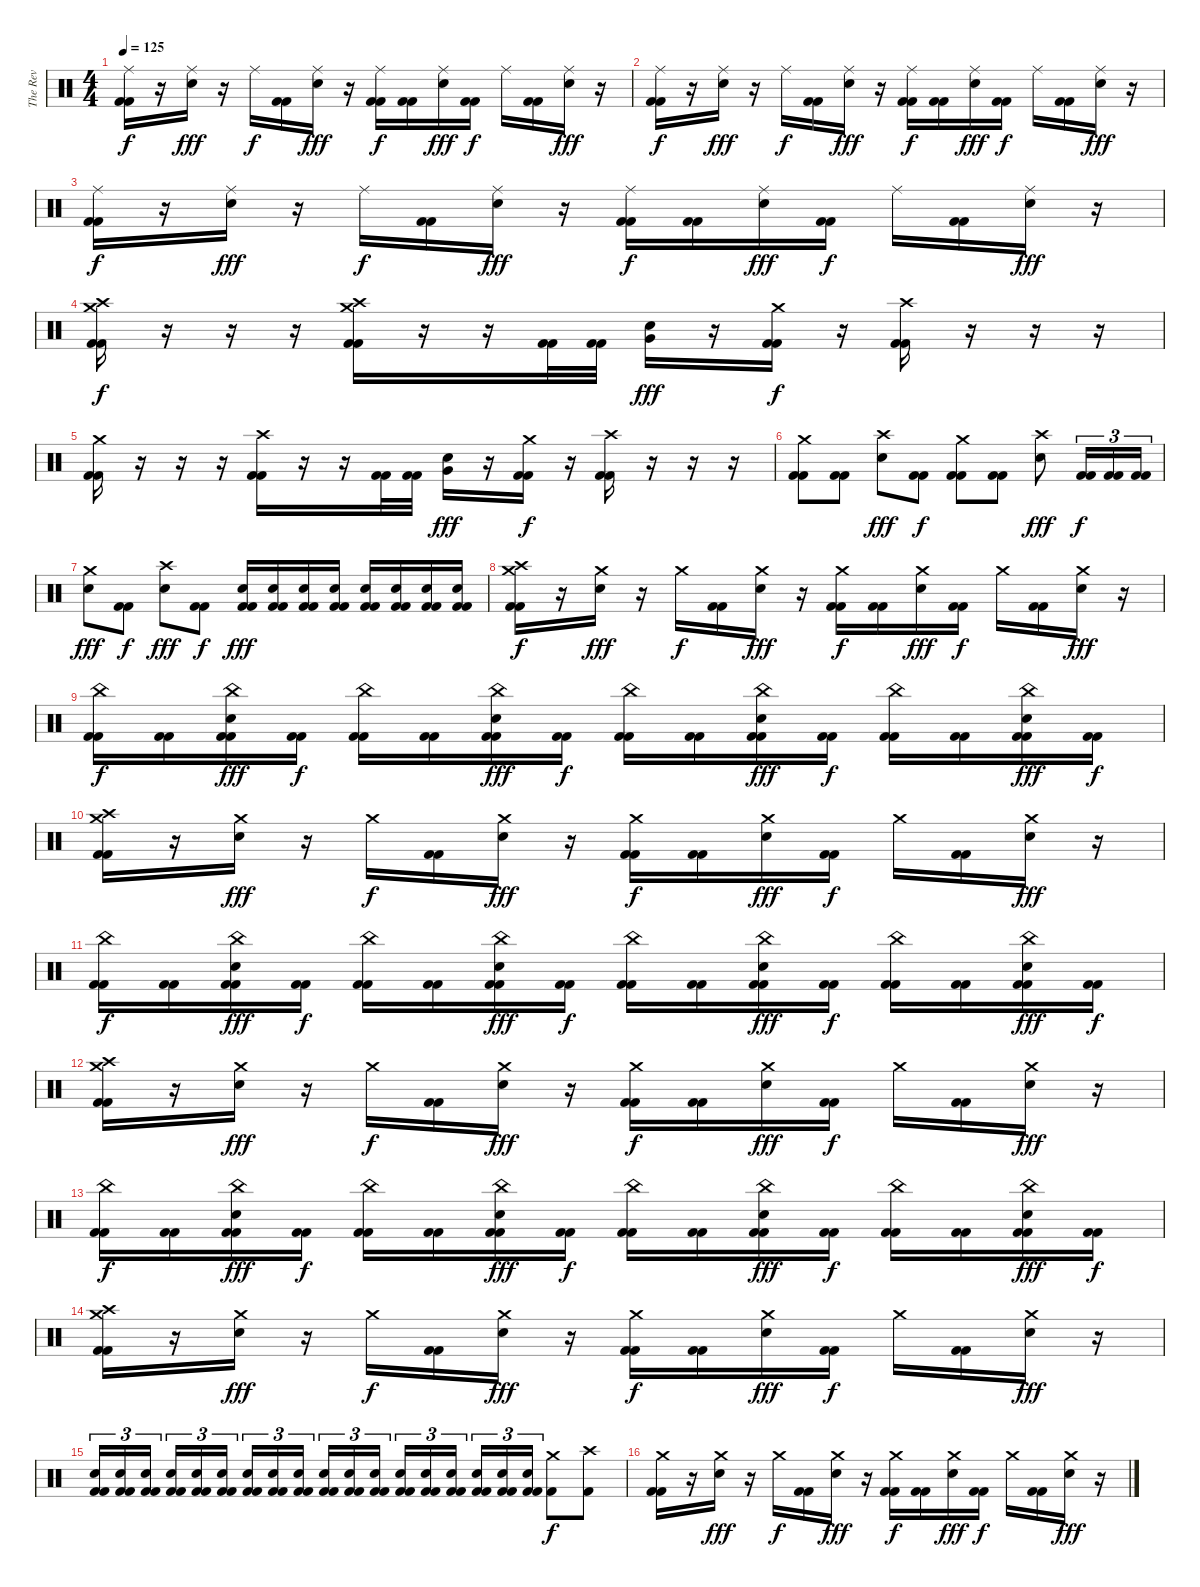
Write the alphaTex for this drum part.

\track ("The Rev" "The Rev") {mute instrument percussion}
\staff {score}
\articulation defaults
\ts (4 4)
\tempo 125
\clef neutral
\ks c
("Ride (middle)" "Kick (hit) 2" "Kick (hit) 2").16{dy f} r.16 ("Ride (middle)" "Electric Snare (hit)").16{dy fff} r.16 "Ride (middle)".16{dy f} ("Kick (hit) 2" "Kick (hit) 2").16 ("Ride (middle)" "Electric Snare (hit)").16{dy fff} r.16 ("Ride (middle)" "Kick (hit) 2" "Kick (hit) 2").16{dy f} ("Kick (hit) 2" "Kick (hit) 2").16 ("Ride (middle)" "Electric Snare (hit)").16{dy fff} ("Kick (hit) 2" "Kick (hit) 2").16{dy f} "Ride (middle)".16 ("Kick (hit) 2" "Kick (hit) 2").16 ("Ride (middle)" "Electric Snare (hit)").16{dy fff} r.16 |
("Ride (middle)" "Kick (hit) 2" "Kick (hit) 2").16{dy f} r.16 ("Ride (middle)" "Electric Snare (hit)").16{dy fff} r.16 "Ride (middle)".16{dy f} ("Kick (hit) 2" "Kick (hit) 2").16 ("Ride (middle)" "Electric Snare (hit)").16{dy fff} r.16 ("Ride (middle)" "Kick (hit) 2" "Kick (hit) 2").16{dy f} ("Kick (hit) 2" "Kick (hit) 2").16 ("Ride (middle)" "Electric Snare (hit)").16{dy fff} ("Kick (hit) 2" "Kick (hit) 2").16{dy f} "Ride (middle)".16 ("Kick (hit) 2" "Kick (hit) 2").16 ("Ride (middle)" "Electric Snare (hit)").16{dy fff} r.16 |
("Ride (middle)" "Kick (hit) 2" "Kick (hit) 2").16{dy f} r.16 ("Ride (middle)" "Electric Snare (hit)").16{dy fff} r.16 "Ride (middle)".16{dy f} ("Kick (hit) 2" "Kick (hit) 2").16 ("Ride (middle)" "Electric Snare (hit)").16{dy fff} r.16 ("Ride (middle)" "Kick (hit) 2" "Kick (hit) 2").16{dy f} ("Kick (hit) 2" "Kick (hit) 2").16 ("Ride (middle)" "Electric Snare (hit)").16{dy fff} ("Kick (hit) 2" "Kick (hit) 2").16{dy f} "Ride (middle)".16 ("Kick (hit) 2" "Kick (hit) 2").16 ("Ride (middle)" "Electric Snare (hit)").16{dy fff} r.16 |
("Crash high (hit)" "Crash medium (hit)" "Kick (hit) 2" "Kick (hit) 2").16{dy f} r.16 r.16 r.16 ("Crash high (hit)" "Crash medium (hit)" "Kick (hit) 2" "Kick (hit) 2").16 r.16 r.16 ("Kick (hit) 2" "Kick (hit) 2").32 ("Kick (hit) 2" "Kick (hit) 2").32 ("Electric Snare (hit)" "Very Low Tom (hit)").16{dy fff} r.16 ("Crash medium (hit)" "Kick (hit) 2" "Kick (hit) 2").16{dy f} r.16 ("Crash high (hit)" "Kick (hit) 2" "Kick (hit) 2").16 r.16 r.16 r.16 |
("Crash medium (hit)" "Kick (hit) 2" "Kick (hit) 2").16 r.16 r.16 r.16 ("Crash high (hit)" "Kick (hit) 2" "Kick (hit) 2").16 r.16 r.16 ("Kick (hit) 2" "Kick (hit) 2").32 ("Kick (hit) 2" "Kick (hit) 2").32 ("Electric Snare (hit)" "Very Low Tom (hit)").16{dy fff} r.16 ("Crash medium (hit)" "Kick (hit) 2" "Kick (hit) 2").16{dy f} r.16 ("Crash high (hit)" "Kick (hit) 2" "Kick (hit) 2").16 r.16 r.16 r.16 |
("Crash medium (hit)" "Kick (hit) 2" "Kick (hit) 2").8 ("Kick (hit) 2" "Kick (hit) 2").8 ("Crash high (hit)" "Electric Snare (hit)").8{dy fff} ("Kick (hit) 2" "Kick (hit) 2").8{dy f} ("Crash medium (hit)" "Kick (hit) 2" "Kick (hit) 2").8 ("Kick (hit) 2" "Kick (hit) 2").8 ("Crash high (hit)" "Electric Snare (hit)").8{dy fff} ("Kick (hit) 2" "Kick (hit) 2").16{tu (3 2) dy f} ("Kick (hit) 2" "Kick (hit) 2").16{tu (3 2)} ("Kick (hit) 2" "Kick (hit) 2").16{tu (3 2)} |
("Crash medium (hit)" "Electric Snare (hit)").8{dy fff} ("Kick (hit) 2" "Kick (hit) 2").8{dy f} ("Crash high (hit)" "Electric Snare (hit)").8{dy fff} ("Kick (hit) 2" "Kick (hit) 2").8{dy f} ("Electric Snare (hit)" "Kick (hit) 2" "Kick (hit) 2").16{dy fff} ("Electric Snare (hit)" "Kick (hit) 2" "Kick (hit) 2").16 ("Electric Snare (hit)" "Kick (hit) 2" "Kick (hit) 2").16 ("Electric Snare (hit)" "Kick (hit) 2" "Kick (hit) 2").16 ("Electric Snare (hit)" "Kick (hit) 2" "Kick (hit) 2").16 ("Electric Snare (hit)" "Kick (hit) 2" "Kick (hit) 2").16 ("Electric Snare (hit)" "Kick (hit) 2" "Kick (hit) 2").16 ("Electric Snare (hit)" "Kick (hit) 2" "Kick (hit) 2").16 |
("Crash high (hit)" "Crash medium (hit)" "Kick (hit) 2" "Kick (hit) 2").16{dy f} r.16 ("Crash medium (hit)" "Electric Snare (hit)").16{dy fff} r.16 "Crash medium (hit)".16{dy f} ("Kick (hit) 2" "Kick (hit) 2").16 ("Crash medium (hit)" "Electric Snare (hit)").16{dy fff} r.16 ("Crash medium (hit)" "Kick (hit) 2" "Kick (hit) 2").16{dy f} ("Kick (hit) 2" "Kick (hit) 2").16 ("Crash medium (hit)" "Electric Snare (hit)").16{dy fff} ("Kick (hit) 2" "Kick (hit) 2").16{dy f} "Crash medium (hit)".16 ("Kick (hit) 2" "Kick (hit) 2").16 ("Crash medium (hit)" "Electric Snare (hit)").16{dy fff} r.16 |
("China (hit)" "Kick (hit) 2" "Kick (hit) 2").16{dy f} ("Kick (hit) 2" "Kick (hit) 2").16 ("China (hit)" "Electric Snare (hit)" "Kick (hit) 2" "Kick (hit) 2").16{dy fff} ("Kick (hit) 2" "Kick (hit) 2").16{dy f} ("China (hit)" "Kick (hit) 2" "Kick (hit) 2").16 ("Kick (hit) 2" "Kick (hit) 2").16 ("China (hit)" "Electric Snare (hit)" "Kick (hit) 2" "Kick (hit) 2").16{dy fff} ("Kick (hit) 2" "Kick (hit) 2").16{dy f} ("China (hit)" "Kick (hit) 2" "Kick (hit) 2").16 ("Kick (hit) 2" "Kick (hit) 2").16 ("China (hit)" "Electric Snare (hit)" "Kick (hit) 2" "Kick (hit) 2").16{dy fff} ("Kick (hit) 2" "Kick (hit) 2").16{dy f} ("China (hit)" "Kick (hit) 2" "Kick (hit) 2").16 ("Kick (hit) 2" "Kick (hit) 2").16 ("China (hit)" "Electric Snare (hit)" "Kick (hit) 2" "Kick (hit) 2").16{dy fff} ("Kick (hit) 2" "Kick (hit) 2").16{dy f} |
("Crash high (hit)" "Crash medium (hit)" "Kick (hit) 2" "Kick (hit) 2").16 r.16 ("Crash medium (hit)" "Electric Snare (hit)").16{dy fff} r.16 "Crash medium (hit)".16{dy f} ("Kick (hit) 2" "Kick (hit) 2").16 ("Crash medium (hit)" "Electric Snare (hit)").16{dy fff} r.16 ("Crash medium (hit)" "Kick (hit) 2" "Kick (hit) 2").16{dy f} ("Kick (hit) 2" "Kick (hit) 2").16 ("Crash medium (hit)" "Electric Snare (hit)").16{dy fff} ("Kick (hit) 2" "Kick (hit) 2").16{dy f} "Crash medium (hit)".16 ("Kick (hit) 2" "Kick (hit) 2").16 ("Crash medium (hit)" "Electric Snare (hit)").16{dy fff} r.16 |
("China (hit)" "Kick (hit) 2" "Kick (hit) 2").16{dy f} ("Kick (hit) 2" "Kick (hit) 2").16 ("China (hit)" "Electric Snare (hit)" "Kick (hit) 2" "Kick (hit) 2").16{dy fff} ("Kick (hit) 2" "Kick (hit) 2").16{dy f} ("China (hit)" "Kick (hit) 2" "Kick (hit) 2").16 ("Kick (hit) 2" "Kick (hit) 2").16 ("China (hit)" "Electric Snare (hit)" "Kick (hit) 2" "Kick (hit) 2").16{dy fff} ("Kick (hit) 2" "Kick (hit) 2").16{dy f} ("China (hit)" "Kick (hit) 2" "Kick (hit) 2").16 ("Kick (hit) 2" "Kick (hit) 2").16 ("China (hit)" "Electric Snare (hit)" "Kick (hit) 2" "Kick (hit) 2").16{dy fff} ("Kick (hit) 2" "Kick (hit) 2").16{dy f} ("China (hit)" "Kick (hit) 2" "Kick (hit) 2").16 ("Kick (hit) 2" "Kick (hit) 2").16 ("China (hit)" "Electric Snare (hit)" "Kick (hit) 2" "Kick (hit) 2").16{dy fff} ("Kick (hit) 2" "Kick (hit) 2").16{dy f} |
("Crash high (hit)" "Crash medium (hit)" "Kick (hit) 2" "Kick (hit) 2").16 r.16 ("Crash medium (hit)" "Electric Snare (hit)").16{dy fff} r.16 "Crash medium (hit)".16{dy f} ("Kick (hit) 2" "Kick (hit) 2").16 ("Crash medium (hit)" "Electric Snare (hit)").16{dy fff} r.16 ("Crash medium (hit)" "Kick (hit) 2" "Kick (hit) 2").16{dy f} ("Kick (hit) 2" "Kick (hit) 2").16 ("Crash medium (hit)" "Electric Snare (hit)").16{dy fff} ("Kick (hit) 2" "Kick (hit) 2").16{dy f} "Crash medium (hit)".16 ("Kick (hit) 2" "Kick (hit) 2").16 ("Crash medium (hit)" "Electric Snare (hit)").16{dy fff} r.16 |
("China (hit)" "Kick (hit) 2" "Kick (hit) 2").16{dy f} ("Kick (hit) 2" "Kick (hit) 2").16 ("China (hit)" "Electric Snare (hit)" "Kick (hit) 2" "Kick (hit) 2").16{dy fff} ("Kick (hit) 2" "Kick (hit) 2").16{dy f} ("China (hit)" "Kick (hit) 2" "Kick (hit) 2").16 ("Kick (hit) 2" "Kick (hit) 2").16 ("China (hit)" "Electric Snare (hit)" "Kick (hit) 2" "Kick (hit) 2").16{dy fff} ("Kick (hit) 2" "Kick (hit) 2").16{dy f} ("China (hit)" "Kick (hit) 2" "Kick (hit) 2").16 ("Kick (hit) 2" "Kick (hit) 2").16 ("China (hit)" "Electric Snare (hit)" "Kick (hit) 2" "Kick (hit) 2").16{dy fff} ("Kick (hit) 2" "Kick (hit) 2").16{dy f} ("China (hit)" "Kick (hit) 2" "Kick (hit) 2").16 ("Kick (hit) 2" "Kick (hit) 2").16 ("China (hit)" "Electric Snare (hit)" "Kick (hit) 2" "Kick (hit) 2").16{dy fff} ("Kick (hit) 2" "Kick (hit) 2").16{dy f} |
("Crash high (hit)" "Crash medium (hit)" "Kick (hit) 2" "Kick (hit) 2").16 r.16 ("Crash medium (hit)" "Electric Snare (hit)").16{dy fff} r.16 "Crash medium (hit)".16{dy f} ("Kick (hit) 2" "Kick (hit) 2").16 ("Crash medium (hit)" "Electric Snare (hit)").16{dy fff} r.16 ("Crash medium (hit)" "Kick (hit) 2" "Kick (hit) 2").16{dy f} ("Kick (hit) 2" "Kick (hit) 2").16 ("Crash medium (hit)" "Electric Snare (hit)").16{dy fff} ("Kick (hit) 2" "Kick (hit) 2").16{dy f} "Crash medium (hit)".16 ("Kick (hit) 2" "Kick (hit) 2").16 ("Crash medium (hit)" "Electric Snare (hit)").16{dy fff} r.16 |
("Electric Snare (hit)" "Kick (hit) 2" "Kick (hit) 2").16{tu (3 2)} ("Electric Snare (hit)" "Kick (hit) 2" "Kick (hit) 2").16{tu (3 2)} ("Electric Snare (hit)" "Kick (hit) 2" "Kick (hit) 2").16{tu (3 2) beam splitsecondary} ("Electric Snare (hit)" "Kick (hit) 2" "Kick (hit) 2").16{tu (3 2)} ("Electric Snare (hit)" "Kick (hit) 2" "Kick (hit) 2").16{tu (3 2)} ("Electric Snare (hit)" "Kick (hit) 2" "Kick (hit) 2").16{tu (3 2)} ("Electric Snare (hit)" "Kick (hit) 2" "Kick (hit) 2").16{tu (3 2)} ("Electric Snare (hit)" "Kick (hit) 2" "Kick (hit) 2").16{tu (3 2)} ("Electric Snare (hit)" "Kick (hit) 2" "Kick (hit) 2").16{tu (3 2) beam splitsecondary} ("Electric Snare (hit)" "Kick (hit) 2" "Kick (hit) 2").16{tu (3 2)} ("Electric Snare (hit)" "Kick (hit) 2" "Kick (hit) 2").16{tu (3 2)} ("Electric Snare (hit)" "Kick (hit) 2" "Kick (hit) 2").16{tu (3 2)} ("Electric Snare (hit)" "Kick (hit) 2" "Kick (hit) 2").16{tu (3 2)} ("Electric Snare (hit)" "Kick (hit) 2" "Kick (hit) 2").16{tu (3 2)} ("Electric Snare (hit)" "Kick (hit) 2" "Kick (hit) 2").16{tu (3 2) beam splitsecondary} ("Electric Snare (hit)" "Kick (hit) 2" "Kick (hit) 2").16{tu (3 2)} ("Electric Snare (hit)" "Kick (hit) 2" "Kick (hit) 2").16{tu (3 2)} ("Electric Snare (hit)" "Kick (hit) 2" "Kick (hit) 2").16{tu (3 2)} ("Crash medium (hit)" "Kick (hit) 2").8{dy f} ("Crash high (hit)" "Kick (hit) 2").8 |
("Crash medium (hit)" "Kick (hit) 2" "Kick (hit) 2").16 r.16 ("Crash medium (hit)" "Electric Snare (hit)").16{dy fff} r.16 "Crash medium (hit)".16{dy f} ("Kick (hit) 2" "Kick (hit) 2").16 ("Crash medium (hit)" "Electric Snare (hit)").16{dy fff} r.16 ("Crash medium (hit)" "Kick (hit) 2" "Kick (hit) 2").16{dy f} ("Kick (hit) 2" "Kick (hit) 2").16 ("Crash medium (hit)" "Electric Snare (hit)").16{dy fff} ("Kick (hit) 2" "Kick (hit) 2").16{dy f} "Crash medium (hit)".16 ("Kick (hit) 2" "Kick (hit) 2").16 ("Crash medium (hit)" "Electric Snare (hit)").16{dy fff} r.16
